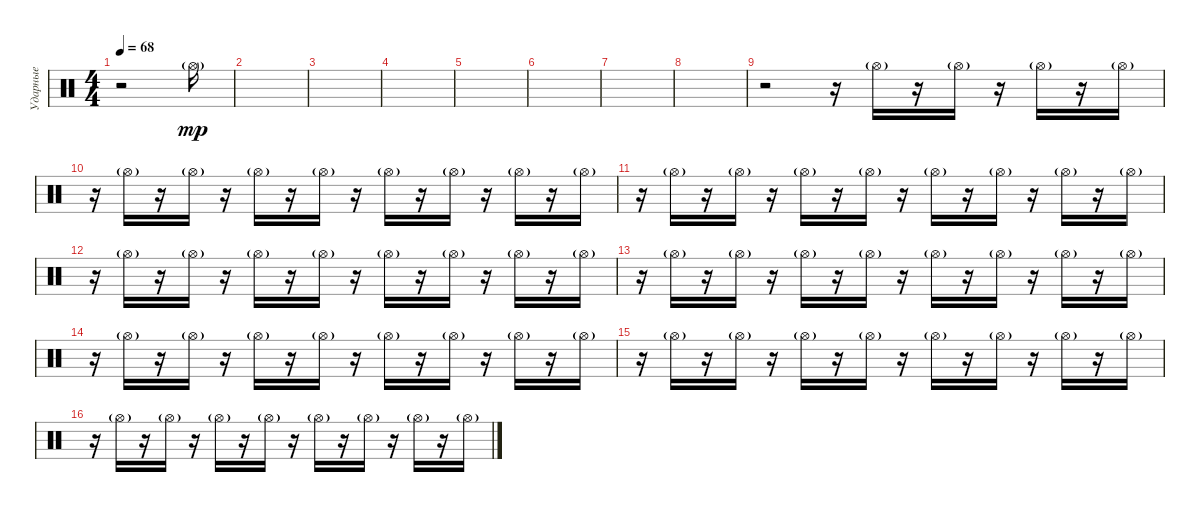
\track ("Ударные" "Ударные") {instrument percussion}
\staff {score}
\articulation defaults
\ts (4 4)
\tempo 68
\clef neutral
\ks c
r.2{dy mp} "Hi-Hat (open)"{g}.16 |
|
|
|
|
|
|
|
r.2 r.16 "Hi-Hat (open)"{g}.16 r.16 "Hi-Hat (open)"{g}.16 r.16 "Hi-Hat (open)"{g}.16 r.16 "Hi-Hat (open)"{g}.16 |
r.16 "Hi-Hat (open)"{g}.16 r.16 "Hi-Hat (open)"{g}.16 r.16 "Hi-Hat (open)"{g}.16 r.16 "Hi-Hat (open)"{g}.16 r.16 "Hi-Hat (open)"{g}.16 r.16 "Hi-Hat (open)"{g}.16 r.16 "Hi-Hat (open)"{g}.16 r.16 "Hi-Hat (open)"{g}.16 |
r.16 "Hi-Hat (open)"{g}.16 r.16 "Hi-Hat (open)"{g}.16 r.16 "Hi-Hat (open)"{g}.16 r.16 "Hi-Hat (open)"{g}.16 r.16 "Hi-Hat (open)"{g}.16 r.16 "Hi-Hat (open)"{g}.16 r.16 "Hi-Hat (open)"{g}.16 r.16 "Hi-Hat (open)"{g}.16 |
r.16 "Hi-Hat (open)"{g}.16 r.16 "Hi-Hat (open)"{g}.16 r.16 "Hi-Hat (open)"{g}.16 r.16 "Hi-Hat (open)"{g}.16 r.16 "Hi-Hat (open)"{g}.16 r.16 "Hi-Hat (open)"{g}.16 r.16 "Hi-Hat (open)"{g}.16 r.16 "Hi-Hat (open)"{g}.16 |
r.16 "Hi-Hat (open)"{g}.16 r.16 "Hi-Hat (open)"{g}.16 r.16 "Hi-Hat (open)"{g}.16 r.16 "Hi-Hat (open)"{g}.16 r.16 "Hi-Hat (open)"{g}.16 r.16 "Hi-Hat (open)"{g}.16 r.16 "Hi-Hat (open)"{g}.16 r.16 "Hi-Hat (open)"{g}.16 |
r.16 "Hi-Hat (open)"{g}.16 r.16 "Hi-Hat (open)"{g}.16 r.16 "Hi-Hat (open)"{g}.16 r.16 "Hi-Hat (open)"{g}.16 r.16 "Hi-Hat (open)"{g}.16 r.16 "Hi-Hat (open)"{g}.16 r.16 "Hi-Hat (open)"{g}.16 r.16 "Hi-Hat (open)"{g}.16 |
r.16 "Hi-Hat (open)"{g}.16 r.16 "Hi-Hat (open)"{g}.16 r.16 "Hi-Hat (open)"{g}.16 r.16 "Hi-Hat (open)"{g}.16 r.16 "Hi-Hat (open)"{g}.16 r.16 "Hi-Hat (open)"{g}.16 r.16 "Hi-Hat (open)"{g}.16 r.16 "Hi-Hat (open)"{g}.16 |
r.16 "Hi-Hat (open)"{g}.16 r.16 "Hi-Hat (open)"{g}.16 r.16 "Hi-Hat (open)"{g}.16 r.16 "Hi-Hat (open)"{g}.16 r.16 "Hi-Hat (open)"{g}.16 r.16 "Hi-Hat (open)"{g}.16 r.16 "Hi-Hat (open)"{g}.16 r.16 "Hi-Hat (open)"{g}.16
